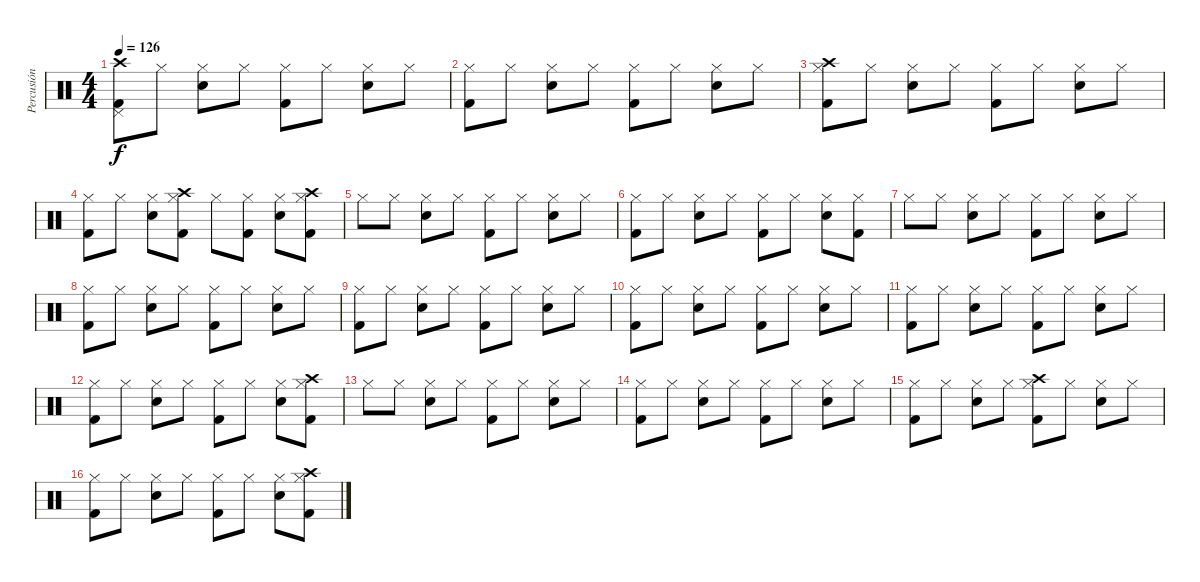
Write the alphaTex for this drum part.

\track ("Percusión" "Percusión") {instrument percussion}
\staff {score}
\articulation defaults
\ts (4 4)
\tempo 126
\clef neutral
\ks c
("Pedal Hi-Hat (hit)" "Crash high (hit)" "Kick (hit) 2").8{dy f} "Hi-Hat (closed)".8 ("Hi-Hat (closed)" "Snare (hit) 2").8 "Hi-Hat (closed)".8 ("Hi-Hat (closed)" "Kick (hit) 2").8 "Hi-Hat (closed)".8 ("Hi-Hat (closed)" "Snare (hit) 2").8 "Hi-Hat (closed)".8 |
("Hi-Hat (closed)" "Kick (hit) 2").8 "Hi-Hat (closed)".8 ("Hi-Hat (closed)" "Snare (hit) 2").8 "Hi-Hat (closed)".8 ("Hi-Hat (closed)" "Kick (hit) 2").8 "Hi-Hat (closed)".8 ("Hi-Hat (closed)" "Snare (hit) 2").8 "Hi-Hat (closed)".8 |
("Hi-Hat (closed)" "Crash high (hit)" "Kick (hit) 2").8 "Hi-Hat (closed)".8 ("Hi-Hat (closed)" "Snare (hit) 2").8 "Hi-Hat (closed)".8 ("Hi-Hat (closed)" "Kick (hit) 2").8 "Hi-Hat (closed)".8 ("Hi-Hat (closed)" "Snare (hit) 2").8 "Hi-Hat (closed)".8 |
("Hi-Hat (closed)" "Kick (hit) 2").8 "Hi-Hat (closed)".8 ("Hi-Hat (closed)" "Snare (hit) 2").8 ("Hi-Hat (closed)" "Crash high (hit)" "Kick (hit) 2").8 "Hi-Hat (closed)".8 ("Hi-Hat (closed)" "Kick (hit) 2").8 ("Hi-Hat (closed)" "Snare (hit) 2").8 ("Hi-Hat (closed)" "Crash high (hit)" "Kick (hit) 2").8 |
"Hi-Hat (closed)".8 "Hi-Hat (closed)".8 ("Hi-Hat (closed)" "Snare (hit) 2").8 "Hi-Hat (closed)".8 ("Hi-Hat (closed)" "Kick (hit) 2").8 "Hi-Hat (closed)".8 ("Hi-Hat (closed)" "Snare (hit) 2").8 "Hi-Hat (closed)".8 |
("Hi-Hat (closed)" "Kick (hit) 2").8 "Hi-Hat (closed)".8 ("Hi-Hat (closed)" "Snare (hit) 2").8 "Hi-Hat (closed)".8 ("Hi-Hat (closed)" "Kick (hit) 2").8 "Hi-Hat (closed)".8 ("Hi-Hat (closed)" "Snare (hit) 2").8 ("Hi-Hat (closed)" "Kick (hit) 2").8 |
"Hi-Hat (closed)".8 "Hi-Hat (closed)".8 ("Hi-Hat (closed)" "Snare (hit) 2").8 "Hi-Hat (closed)".8 ("Hi-Hat (closed)" "Kick (hit) 2").8 "Hi-Hat (closed)".8 ("Hi-Hat (closed)" "Snare (hit) 2").8 "Hi-Hat (closed)".8 |
("Hi-Hat (closed)" "Kick (hit) 2").8 "Hi-Hat (closed)".8 ("Hi-Hat (closed)" "Snare (hit) 2").8 "Hi-Hat (closed)".8 ("Hi-Hat (closed)" "Kick (hit) 2").8 "Hi-Hat (closed)".8 ("Hi-Hat (closed)" "Snare (hit) 2").8 "Hi-Hat (closed)".8 |
("Hi-Hat (closed)" "Kick (hit) 2").8 "Hi-Hat (closed)".8 ("Hi-Hat (closed)" "Snare (hit) 2").8 "Hi-Hat (closed)".8 ("Hi-Hat (closed)" "Kick (hit) 2").8 "Hi-Hat (closed)".8 ("Hi-Hat (closed)" "Snare (hit) 2").8 "Hi-Hat (closed)".8 |
("Hi-Hat (closed)" "Kick (hit) 2").8 "Hi-Hat (closed)".8 ("Hi-Hat (closed)" "Snare (hit) 2").8 "Hi-Hat (closed)".8 ("Hi-Hat (closed)" "Kick (hit) 2").8 "Hi-Hat (closed)".8 ("Hi-Hat (closed)" "Snare (hit) 2").8 "Hi-Hat (closed)".8 |
("Hi-Hat (closed)" "Kick (hit) 2").8 "Hi-Hat (closed)".8 ("Hi-Hat (closed)" "Snare (hit) 2").8 "Hi-Hat (closed)".8 ("Hi-Hat (closed)" "Kick (hit) 2").8 "Hi-Hat (closed)".8 ("Hi-Hat (closed)" "Snare (hit) 2").8 "Hi-Hat (closed)".8 |
("Hi-Hat (closed)" "Kick (hit) 2").8 "Hi-Hat (closed)".8 ("Hi-Hat (closed)" "Snare (hit) 2").8 "Hi-Hat (closed)".8 ("Hi-Hat (closed)" "Kick (hit) 2").8 "Hi-Hat (closed)".8 ("Hi-Hat (closed)" "Snare (hit) 2").8 ("Hi-Hat (closed)" "Crash high (hit)" "Kick (hit) 2").8 |
"Hi-Hat (closed)".8 "Hi-Hat (closed)".8 ("Hi-Hat (closed)" "Snare (hit) 2").8 "Hi-Hat (closed)".8 ("Hi-Hat (closed)" "Kick (hit) 2").8 "Hi-Hat (closed)".8 ("Hi-Hat (closed)" "Snare (hit) 2").8 "Hi-Hat (closed)".8 |
("Hi-Hat (closed)" "Kick (hit) 2").8 "Hi-Hat (closed)".8 ("Hi-Hat (closed)" "Snare (hit) 2").8 "Hi-Hat (closed)".8 ("Hi-Hat (closed)" "Kick (hit) 2").8 "Hi-Hat (closed)".8 ("Hi-Hat (closed)" "Snare (hit) 2").8 "Hi-Hat (closed)".8 |
("Hi-Hat (closed)" "Kick (hit) 2").8 "Hi-Hat (closed)".8 ("Hi-Hat (closed)" "Snare (hit) 2").8 "Hi-Hat (closed)".8 ("Hi-Hat (closed)" "Crash high (hit)" "Kick (hit) 2").8 "Hi-Hat (closed)".8 ("Hi-Hat (closed)" "Snare (hit) 2").8 "Hi-Hat (closed)".8 |
("Hi-Hat (closed)" "Kick (hit) 2").8 "Hi-Hat (closed)".8 ("Hi-Hat (closed)" "Snare (hit) 2").8 "Hi-Hat (closed)".8 ("Hi-Hat (closed)" "Kick (hit) 2").8 "Hi-Hat (closed)".8 ("Hi-Hat (closed)" "Snare (hit) 2").8 ("Hi-Hat (closed)" "Crash high (hit)" "Kick (hit) 2").8
